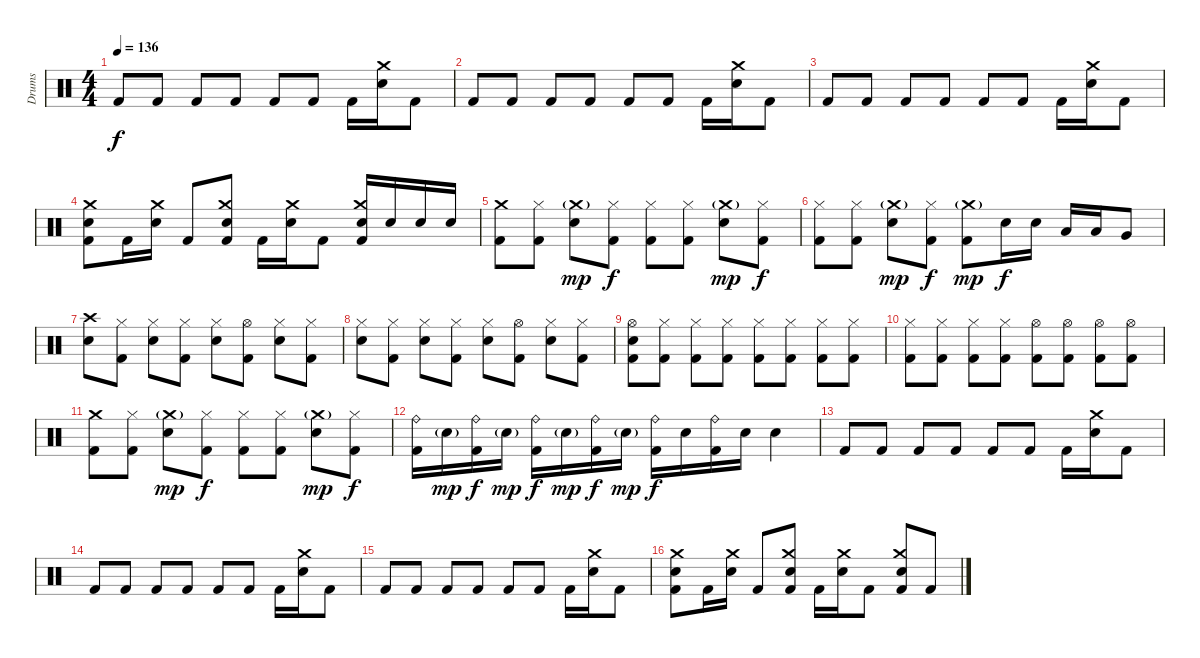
\track ("Drums" "Drums") {instrument percussion}
\staff {score}
\articulation defaults
\ts (4 4)
\tempo 136
\clef neutral
\ks c "Kick (hit) 2".8{dy f} "Kick (hit) 2".8 "Kick (hit) 2".8 "Kick (hit) 2".8 "Kick (hit) 2".8 "Kick (hit) 2".8 "Kick (hit) 2".16
("Crash medium (hit)" "Electric Snare (hit)").16 "Kick (hit) 2".8 |
"Kick (hit) 2".8 "Kick (hit) 2".8 "Kick (hit) 2".8 "Kick (hit) 2".8 "Kick (hit) 2".8 "Kick (hit) 2".8 "Kick (hit) 2".16 ("Crash medium (hit)" "Electric Snare (hit)").16 "Kick (hit) 2".8 |
"Kick (hit) 2".8 "Kick (hit) 2".8 "Kick (hit) 2".8 "Kick (hit) 2".8 "Kick (hit) 2".8 "Kick (hit) 2".8 "Kick (hit) 2".16 ("Crash medium (hit)" "Electric Snare (hit)").16 "Kick (hit) 2".8 |
("Crash medium (hit)" "Electric Snare (hit)" "Kick (hit) 2").8 "Kick (hit) 2".16 ("Crash medium (hit)" "Electric Snare (hit)").16 "Kick (hit) 2".8 ("Crash medium (hit)" "Electric Snare (hit)" "Kick (hit) 2").8 "Kick (hit) 2".16 ("Crash medium (hit)" "Electric Snare (hit)").16 "Kick (hit) 2".8 ("Crash medium (hit)" "Electric Snare (hit)" "Kick (hit) 2").16 "Electric Snare (hit)".16 "Electric Snare (hit)".16 "Electric Snare (hit)".16 |
("Crash medium (hit)" "Kick (hit) 2").8 ("Hi-Hat (closed)" "Kick (hit) 2").8 ("Crash medium (hit)"{g} "Electric Snare (hit)").8{dy mp} ("Hi-Hat (closed)" "Kick (hit) 2").8{dy f} ("Hi-Hat (closed)" "Kick (hit) 2").8 ("Hi-Hat (closed)" "Kick (hit) 2").8 ("Crash medium (hit)"{g} "Electric Snare (hit)").8{dy mp} ("Hi-Hat (closed)" "Kick (hit) 2").8{dy f} |
("Hi-Hat (closed)" "Kick (hit) 2").8 ("Hi-Hat (closed)" "Kick (hit) 2").8 ("Crash medium (hit)"{g} "Electric Snare (hit)").8{dy mp} ("Hi-Hat (closed)" "Kick (hit) 2").8{dy f} ("Crash medium (hit)"{g} "Kick (hit) 2").8{dy mp} "Electric Snare (hit)".16{dy f} "Electric Snare (hit)".16 "Low Tom (hit)".16 "Low Tom (hit)".16 "Very Low Tom (hit)".8 |
("Crash high (hit)" "Electric Snare (hit)").8 ("Hi-Hat (closed)" "Kick (hit) 2").8 ("Hi-Hat (closed)" "Electric Snare (hit)").8 ("Hi-Hat (closed)" "Kick (hit) 2").8 ("Hi-Hat (closed)" "Electric Snare (hit)").8 ("Hi-Hat (open)" "Kick (hit) 2").8 ("Hi-Hat (closed)" "Electric Snare (hit)").8 ("Hi-Hat (closed)" "Kick (hit) 2").8 |
("Hi-Hat (closed)" "Electric Snare (hit)").8 ("Hi-Hat (closed)" "Kick (hit) 2").8 ("Hi-Hat (closed)" "Electric Snare (hit)").8 ("Hi-Hat (closed)" "Kick (hit) 2").8 ("Hi-Hat (closed)" "Electric Snare (hit)").8 ("Hi-Hat (open)" "Kick (hit) 2").8 ("Hi-Hat (closed)" "Electric Snare (hit)").8 ("Hi-Hat (closed)" "Kick (hit) 2").8 |
("Hi-Hat (open)" "Electric Snare (hit)" "Kick (hit) 2").8 ("Hi-Hat (closed)" "Kick (hit) 2").8 ("Hi-Hat (closed)" "Kick (hit) 2").8 ("Hi-Hat (closed)" "Kick (hit) 2").8 ("Hi-Hat (closed)" "Kick (hit) 2").8 ("Hi-Hat (closed)" "Kick (hit) 2").8 ("Hi-Hat (closed)" "Kick (hit) 2").8 ("Hi-Hat (closed)" "Kick (hit) 2").8 |
("Hi-Hat (closed)" "Kick (hit) 2").8 ("Hi-Hat (closed)" "Kick (hit) 2").8 ("Hi-Hat (closed)" "Kick (hit) 2").8 ("Hi-Hat (closed)" "Kick (hit) 2").8 ("Hi-Hat (open)" "Kick (hit) 2").8 ("Hi-Hat (open)" "Kick (hit) 2").8 ("Hi-Hat (open)" "Kick (hit) 2").8 ("Hi-Hat (open)" "Kick (hit) 2").8 |
("Crash medium (hit)" "Kick (hit) 2").8 ("Hi-Hat (closed)" "Kick (hit) 2").8 ("Crash medium (hit)"{g} "Electric Snare (hit)").8{dy mp} ("Hi-Hat (closed)" "Kick (hit) 2").8{dy f} ("Hi-Hat (closed)" "Kick (hit) 2").8 ("Hi-Hat (closed)" "Kick (hit) 2").8 ("Crash medium (hit)"{g} "Electric Snare (hit)").8{dy mp} ("Hi-Hat (closed)" "Kick (hit) 2").8{dy f} |
("Ride (bell)" "Kick (hit) 2").16 "Electric Snare (hit)"{g}.16{dy mp} ("Ride (bell)" "Kick (hit) 2").16{dy f} "Electric Snare (hit)"{g}.16{dy mp} ("Ride (bell)" "Kick (hit) 2").16{dy f} "Electric Snare (hit)"{g}.16{dy mp} ("Ride (bell)" "Kick (hit) 2").16{dy f} "Electric Snare (hit)"{g}.16{dy mp} ("Ride (bell)" "Kick (hit) 2").16{dy f} "Electric Snare (hit)".16 ("Ride (bell)" "Kick (hit) 2").16 "Electric Snare (hit)".16 "Electric Snare (hit)".4 |
"Kick (hit) 2".8 "Kick (hit) 2".8 "Kick (hit) 2".8 "Kick (hit) 2".8 "Kick (hit) 2".8 "Kick (hit) 2".8 "Kick (hit) 2".16 ("Crash medium (hit)" "Electric Snare (hit)").16 "Kick (hit) 2".8 |
"Kick (hit) 2".8 "Kick (hit) 2".8 "Kick (hit) 2".8 "Kick (hit) 2".8 "Kick (hit) 2".8 "Kick (hit) 2".8 "Kick (hit) 2".16 ("Crash medium (hit)" "Electric Snare (hit)").16 "Kick (hit) 2".8 |
"Kick (hit) 2".8 "Kick (hit) 2".8 "Kick (hit) 2".8 "Kick (hit) 2".8 "Kick (hit) 2".8 "Kick (hit) 2".8 "Kick (hit) 2".16 ("Crash medium (hit)" "Electric Snare (hit)").16 "Kick (hit) 2".8 |
("Crash medium (hit)" "Electric Snare (hit)" "Kick (hit) 2").8 "Kick (hit) 2".16 ("Crash medium (hit)" "Electric Snare (hit)").16 "Kick (hit) 2".8 ("Crash medium (hit)" "Electric Snare (hit)" "Kick (hit) 2").8 "Kick (hit) 2".16 ("Crash medium (hit)" "Electric Snare (hit)").16 "Kick (hit) 2".8 ("Crash medium (hit)" "Electric Snare (hit)" "Kick (hit) 2").8 "Kick (hit) 2".8
